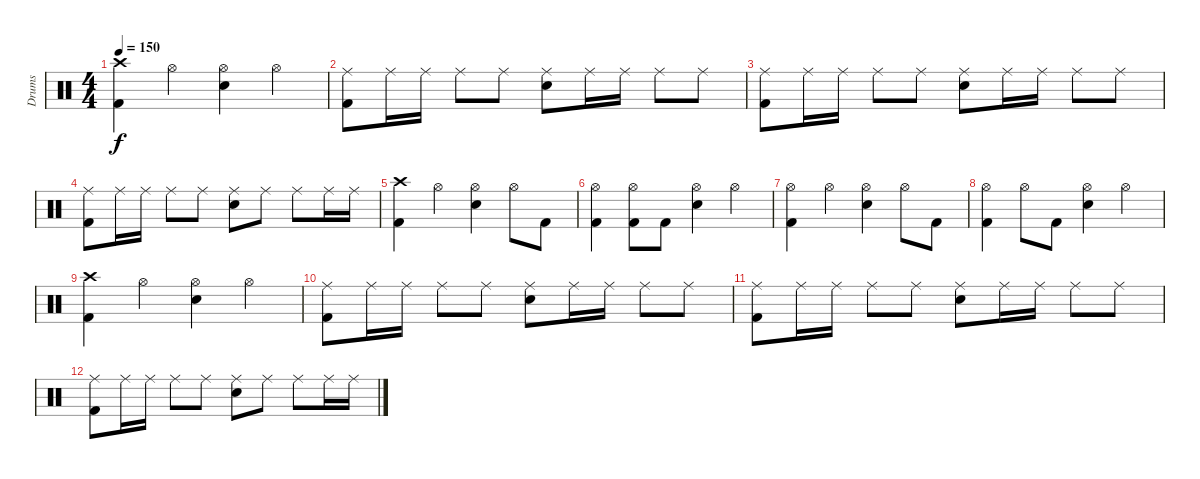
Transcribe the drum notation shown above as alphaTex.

\track ("Drums" "Drums") {instrument percussion}
\staff {score}
\articulation defaults
\ts (4 4)
\tempo 150
\clef neutral
\ks c
("Crash high (hit)" "Kick (hit) 2").4{dy f} "Hi-Hat (open)".4 ("Hi-Hat (open)" "Electric Snare (hit)").4 "Hi-Hat (open)".4 |
("Ride (middle)" "Kick (hit) 2").8 "Ride (middle)".16 "Ride (middle)".16 "Ride (middle)".8 "Ride (middle)".8 ("Ride (middle)" "Electric Snare (hit)").8 "Ride (middle)".16 "Ride (middle)".16 "Ride (middle)".8 "Ride (middle)".8 |
("Ride (middle)" "Kick (hit) 2").8 "Ride (middle)".16 "Ride (middle)".16 "Ride (middle)".8 "Ride (middle)".8 ("Ride (middle)" "Electric Snare (hit)").8 "Ride (middle)".16 "Ride (middle)".16 "Ride (middle)".8 "Ride (middle)".8 |
("Ride (middle)" "Kick (hit) 2").8 "Ride (middle)".16 "Ride (middle)".16 "Ride (middle)".8 "Ride (middle)".8 ("Ride (middle)" "Electric Snare (hit)").8 "Ride (middle)".8 "Ride (middle)".8 "Ride (middle)".16 "Ride (middle)".16 |
("Crash high (hit)" "Kick (hit) 2").4 "Hi-Hat (open)".4 ("Hi-Hat (open)" "Electric Snare (hit)").4 "Hi-Hat (open)".8 "Kick (hit) 2".8 |
("Hi-Hat (open)" "Kick (hit) 2").4 ("Hi-Hat (open)" "Kick (hit) 2").8 "Kick (hit) 2".8 ("Hi-Hat (open)" "Electric Snare (hit)").4 "Hi-Hat (open)".4 |
("Hi-Hat (open)" "Kick (hit) 2").4 "Hi-Hat (open)".4 ("Hi-Hat (open)" "Electric Snare (hit)").4 "Hi-Hat (open)".8 "Kick (hit) 2".8 |
("Hi-Hat (open)" "Kick (hit) 2").4 "Hi-Hat (open)".8 "Kick (hit) 2".8 ("Hi-Hat (open)" "Electric Snare (hit)").4 "Hi-Hat (open)".4 |
("Crash high (hit)" "Kick (hit) 2").4 "Hi-Hat (open)".4 ("Hi-Hat (open)" "Electric Snare (hit)").4 "Hi-Hat (open)".4 |
("Ride (middle)" "Kick (hit) 2").8 "Ride (middle)".16 "Ride (middle)".16 "Ride (middle)".8 "Ride (middle)".8 ("Ride (middle)" "Electric Snare (hit)").8 "Ride (middle)".16 "Ride (middle)".16 "Ride (middle)".8 "Ride (middle)".8 |
("Ride (middle)" "Kick (hit) 2").8 "Ride (middle)".16 "Ride (middle)".16 "Ride (middle)".8 "Ride (middle)".8 ("Ride (middle)" "Electric Snare (hit)").8 "Ride (middle)".16 "Ride (middle)".16 "Ride (middle)".8 "Ride (middle)".8 |
("Ride (middle)" "Kick (hit) 2").8 "Ride (middle)".16 "Ride (middle)".16 "Ride (middle)".8 "Ride (middle)".8 ("Ride (middle)" "Electric Snare (hit)").8 "Ride (middle)".8 "Ride (middle)".8 "Ride (middle)".16 "Ride (middle)".16
